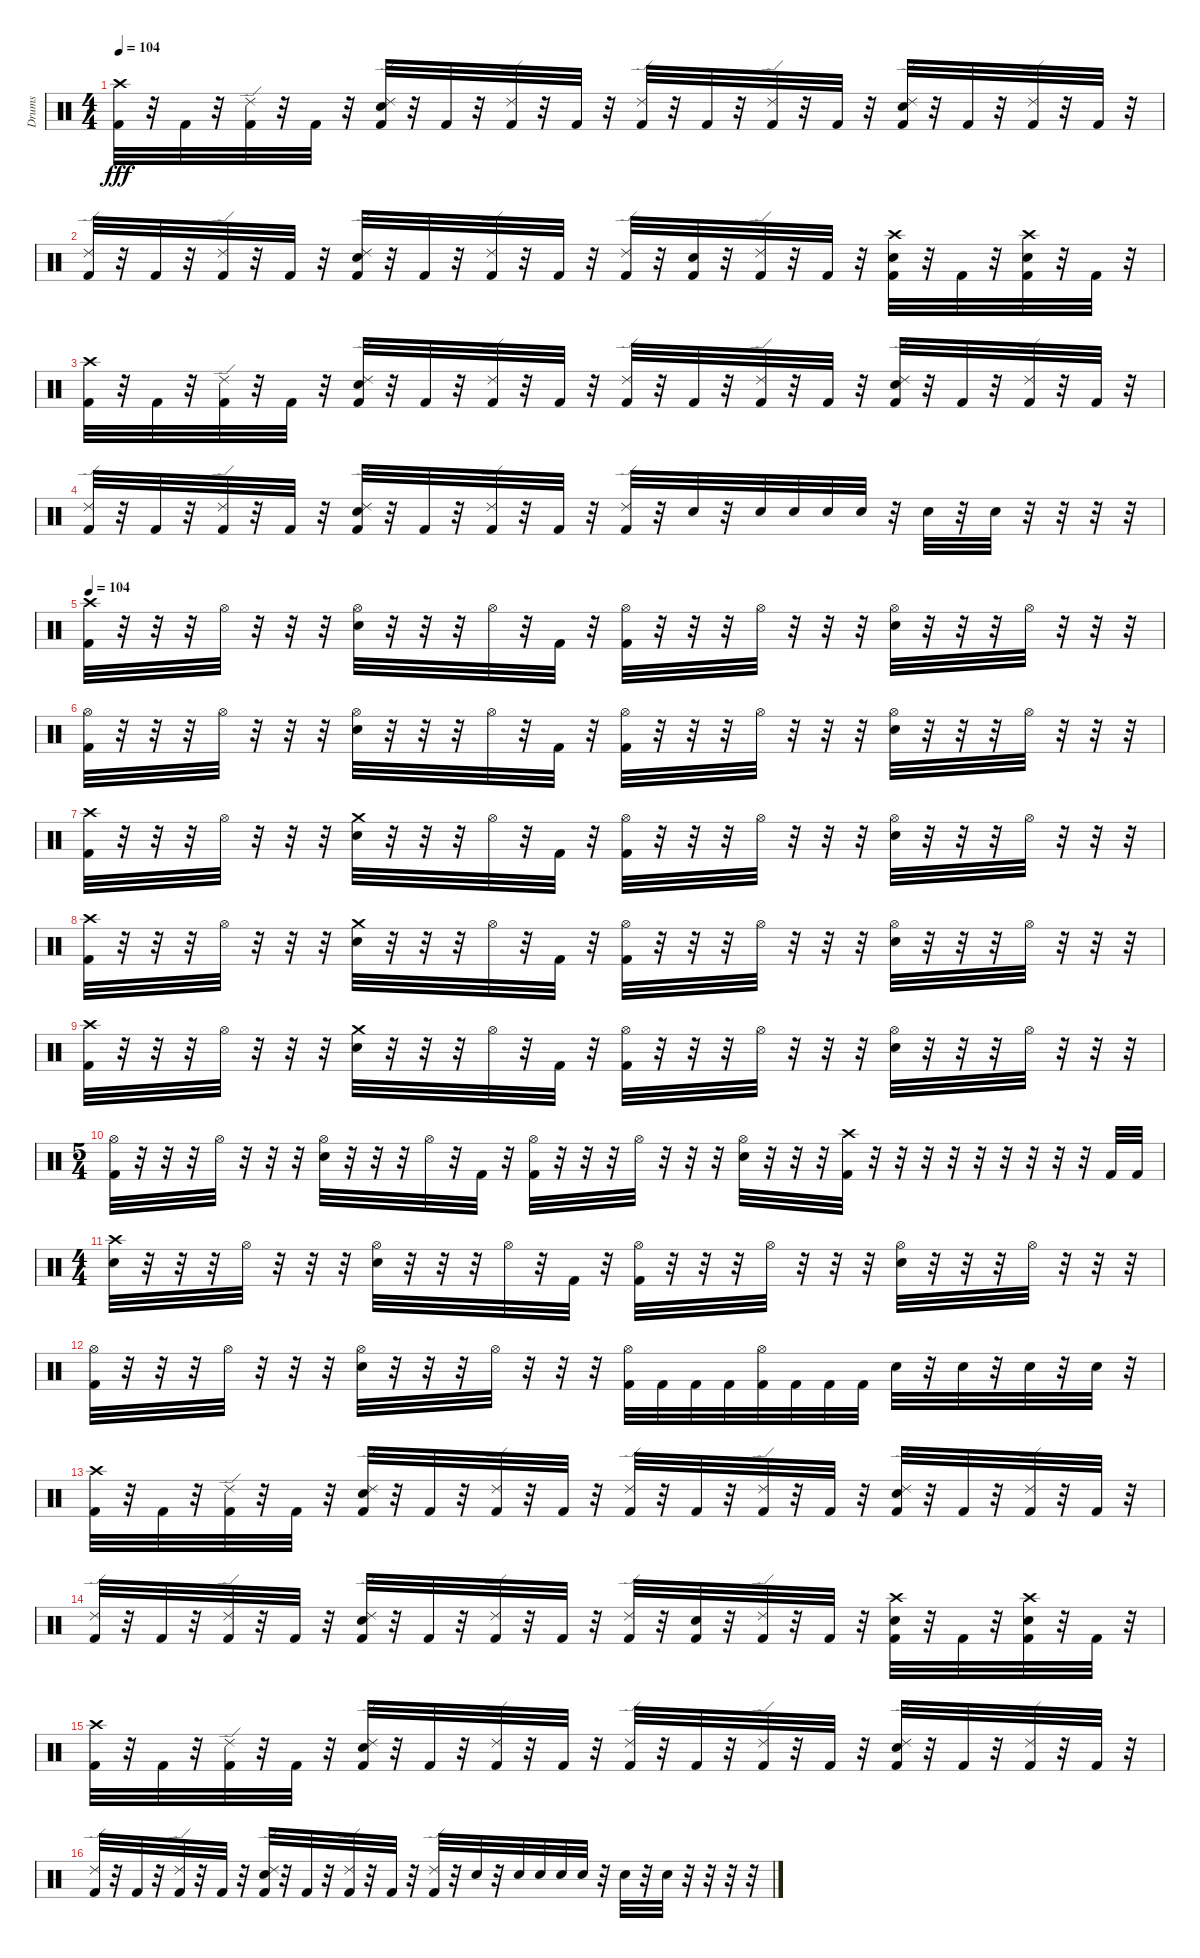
\track ("Drums" "Drums") {instrument percussion}
\staff {score}
\articulation defaults
\ts (4 4)
\tempo 104
\clef neutral
\ks c
("Crash high (hit)" "Kick (hit) 2").32{dy fff} r.32 "Kick (hit) 2".32 r.32 ("Ride (edge) 2" "Kick (hit) 2").32 r.32 "Kick (hit) 2".32 r.32 ("Ride (edge) 2" "Snare (hit) 2" "Kick (hit) 2").32 r.32 "Kick (hit) 2".32 r.32 ("Ride (edge) 2" "Kick (hit) 2").32 r.32 "Kick (hit) 2".32 r.32 ("Ride (edge) 2" "Kick (hit) 2").32 r.32 "Kick (hit) 2".32 r.32 ("Ride (edge) 2" "Kick (hit) 2").32 r.32 "Kick (hit) 2".32 r.32 ("Ride (edge) 2" "Snare (hit) 2" "Kick (hit) 2").32 r.32 "Kick (hit) 2".32 r.32 ("Ride (edge) 2" "Kick (hit) 2").32 r.32 "Kick (hit) 2".32 r.32 |
("Ride (edge) 2" "Kick (hit) 2").32 r.32 "Kick (hit) 2".32 r.32 ("Ride (edge) 2" "Kick (hit) 2").32 r.32 "Kick (hit) 2".32 r.32 ("Ride (edge) 2" "Snare (hit) 2" "Kick (hit) 2").32 r.32 "Kick (hit) 2".32 r.32 ("Ride (edge) 2" "Kick (hit) 2").32 r.32 "Kick (hit) 2".32 r.32 ("Ride (edge) 2" "Kick (hit) 2").32 r.32 ("Snare (hit) 2" "Kick (hit) 2").32 r.32 ("Ride (edge) 2" "Kick (hit) 2").32 r.32 "Kick (hit) 2".32 r.32 ("Crash high (hit)" "Snare (hit) 2" "Kick (hit) 2").32 r.32 "Kick (hit) 2".32 r.32 ("Crash high (hit)" "Snare (hit) 2" "Kick (hit) 2").32 r.32 "Kick (hit) 2".32 r.32 |
("Crash high (hit)" "Kick (hit) 2").32 r.32 "Kick (hit) 2".32 r.32 ("Ride (edge) 2" "Kick (hit) 2").32 r.32 "Kick (hit) 2".32 r.32 ("Ride (edge) 2" "Snare (hit) 2" "Kick (hit) 2").32 r.32 "Kick (hit) 2".32 r.32 ("Ride (edge) 2" "Kick (hit) 2").32 r.32 "Kick (hit) 2".32 r.32 ("Ride (edge) 2" "Kick (hit) 2").32 r.32 "Kick (hit) 2".32 r.32 ("Ride (edge) 2" "Kick (hit) 2").32 r.32 "Kick (hit) 2".32 r.32 ("Ride (edge) 2" "Snare (hit) 2" "Kick (hit) 2").32 r.32 "Kick (hit) 2".32 r.32 ("Ride (edge) 2" "Kick (hit) 2").32 r.32 "Kick (hit) 2".32 r.32 |
("Ride (edge) 2" "Kick (hit) 2").32 r.32 "Kick (hit) 2".32 r.32 ("Ride (edge) 2" "Kick (hit) 2").32 r.32 "Kick (hit) 2".32 r.32 ("Ride (edge) 2" "Snare (hit) 2" "Kick (hit) 2").32 r.32 "Kick (hit) 2".32 r.32 ("Ride (edge) 2" "Kick (hit) 2").32 r.32 "Kick (hit) 2".32 r.32 ("Ride (edge) 2" "Kick (hit) 2").32 r.32 "Snare (hit) 2".32 r.32 "Snare (hit) 2".32 "Snare (hit) 2".32 "Snare (hit) 2".32 "Snare (hit) 2".32 r.32 "Snare (hit) 2".32 r.32 "Snare (hit) 2".32 r.32 r.32 r.32 r.32 |
\tempo 104
("Crash high (hit)" "Kick (hit) 2").32 r.32 r.32 r.32 "Hi-Hat (open)".32 r.32 r.32 r.32 ("Hi-Hat (open)" "Snare (hit) 2").32 r.32 r.32 r.32 "Hi-Hat (open)".32 r.32 "Kick (hit) 2".32 r.32 ("Hi-Hat (open)" "Kick (hit) 2").32 r.32 r.32 r.32 "Hi-Hat (open)".32 r.32 r.32 r.32 ("Hi-Hat (open)" "Snare (hit) 2").32 r.32 r.32 r.32 "Hi-Hat (open)".32 r.32 r.32 r.32 |
("Hi-Hat (open)" "Kick (hit) 2").32 r.32 r.32 r.32 "Hi-Hat (open)".32 r.32 r.32 r.32 ("Hi-Hat (open)" "Snare (hit) 2").32 r.32 r.32 r.32 "Hi-Hat (open)".32 r.32 "Kick (hit) 2".32 r.32 ("Hi-Hat (open)" "Kick (hit) 2").32 r.32 r.32 r.32 "Hi-Hat (open)".32 r.32 r.32 r.32 ("Hi-Hat (open)" "Snare (hit) 2").32 r.32 r.32 r.32 "Hi-Hat (open)".32 r.32 r.32 r.32 |
("Crash high (hit)" "Kick (hit) 2").32 r.32 r.32 r.32 "Hi-Hat (open)".32 r.32 r.32 r.32 ("Crash medium (hit)" "Snare (hit) 2").32 r.32 r.32 r.32 "Hi-Hat (open)".32 r.32 "Kick (hit) 2".32 r.32 ("Hi-Hat (open)" "Kick (hit) 2").32 r.32 r.32 r.32 "Hi-Hat (open)".32 r.32 r.32 r.32 ("Hi-Hat (open)" "Snare (hit) 2").32 r.32 r.32 r.32 "Hi-Hat (open)".32 r.32 r.32 r.32 |
("Crash high (hit)" "Kick (hit) 2").32 r.32 r.32 r.32 "Hi-Hat (open)".32 r.32 r.32 r.32 ("Crash medium (hit)" "Snare (hit) 2").32 r.32 r.32 r.32 "Hi-Hat (open)".32 r.32 "Kick (hit) 2".32 r.32 ("Hi-Hat (open)" "Kick (hit) 2").32 r.32 r.32 r.32 "Hi-Hat (open)".32 r.32 r.32 r.32 ("Hi-Hat (open)" "Snare (hit) 2").32 r.32 r.32 r.32 "Hi-Hat (open)".32 r.32 r.32 r.32 |
("Crash high (hit)" "Kick (hit) 2").32 r.32 r.32 r.32 "Hi-Hat (open)".32 r.32 r.32 r.32 ("Crash medium (hit)" "Snare (hit) 2").32 r.32 r.32 r.32 "Hi-Hat (open)".32 r.32 "Kick (hit) 2".32 r.32 ("Hi-Hat (open)" "Kick (hit) 2").32 r.32 r.32 r.32 "Hi-Hat (open)".32 r.32 r.32 r.32 ("Hi-Hat (open)" "Snare (hit) 2").32 r.32 r.32 r.32 "Hi-Hat (open)".32 r.32 r.32 r.32 |
\ts (5 4)
("Hi-Hat (open)" "Kick (hit) 2").32 r.32 r.32 r.32 "Hi-Hat (open)".32 r.32 r.32 r.32 ("Hi-Hat (open)" "Snare (hit) 2").32 r.32 r.32 r.32 "Hi-Hat (open)".32 r.32 "Kick (hit) 2".32 r.32 ("Hi-Hat (open)" "Kick (hit) 2").32 r.32 r.32 r.32 "Hi-Hat (open)".32 r.32 r.32 r.32 ("Hi-Hat (open)" "Snare (hit) 2").32 r.32 r.32 r.32 ("Crash high (hit)" "Kick (hit) 2").32 r.32 r.32 r.32 r.32 r.32 r.32 r.32 r.32 r.32 "Kick (hit) 2".32 "Kick (hit) 2".32 |
\ts (4 4)
("Crash high (hit)" "Snare (hit) 2").32 r.32 r.32 r.32 "Hi-Hat (open)".32 r.32 r.32 r.32 ("Hi-Hat (open)" "Snare (hit) 2").32 r.32 r.32 r.32 "Hi-Hat (open)".32 r.32 "Kick (hit) 2".32 r.32 ("Hi-Hat (open)" "Kick (hit) 2").32 r.32 r.32 r.32 "Hi-Hat (open)".32 r.32 r.32 r.32 ("Hi-Hat (open)" "Snare (hit) 2").32 r.32 r.32 r.32 "Hi-Hat (open)".32 r.32 r.32 r.32 |
("Hi-Hat (open)" "Kick (hit) 2").32 r.32 r.32 r.32 "Hi-Hat (open)".32 r.32 r.32 r.32 ("Hi-Hat (open)" "Snare (hit) 2").32 r.32 r.32 r.32 "Hi-Hat (open)".32 r.32 r.32 r.32 ("Hi-Hat (open)" "Kick (hit) 2").32 "Kick (hit) 2".32 "Kick (hit) 2".32 "Kick (hit) 2".32 ("Hi-Hat (open)" "Kick (hit) 2").32 "Kick (hit) 2".32 "Kick (hit) 2".32 "Kick (hit) 2".32 "Snare (hit) 2".32 r.32 "Snare (hit) 2".32 r.32 "Snare (hit) 2".32 r.32 "Snare (hit) 2".32 r.32 |
("Crash high (hit)" "Kick (hit) 2").32 r.32 "Kick (hit) 2".32 r.32 ("Ride (edge) 2" "Kick (hit) 2").32 r.32 "Kick (hit) 2".32 r.32 ("Ride (edge) 2" "Snare (hit) 2" "Kick (hit) 2").32 r.32 "Kick (hit) 2".32 r.32 ("Ride (edge) 2" "Kick (hit) 2").32 r.32 "Kick (hit) 2".32 r.32 ("Ride (edge) 2" "Kick (hit) 2").32 r.32 "Kick (hit) 2".32 r.32 ("Ride (edge) 2" "Kick (hit) 2").32 r.32 "Kick (hit) 2".32 r.32 ("Ride (edge) 2" "Snare (hit) 2" "Kick (hit) 2").32 r.32 "Kick (hit) 2".32 r.32 ("Ride (edge) 2" "Kick (hit) 2").32 r.32 "Kick (hit) 2".32 r.32 |
("Ride (edge) 2" "Kick (hit) 2").32 r.32 "Kick (hit) 2".32 r.32 ("Ride (edge) 2" "Kick (hit) 2").32 r.32 "Kick (hit) 2".32 r.32 ("Ride (edge) 2" "Snare (hit) 2" "Kick (hit) 2").32 r.32 "Kick (hit) 2".32 r.32 ("Ride (edge) 2" "Kick (hit) 2").32 r.32 "Kick (hit) 2".32 r.32 ("Ride (edge) 2" "Kick (hit) 2").32 r.32 ("Snare (hit) 2" "Kick (hit) 2").32 r.32 ("Ride (edge) 2" "Kick (hit) 2").32 r.32 "Kick (hit) 2".32 r.32 ("Crash high (hit)" "Snare (hit) 2" "Kick (hit) 2").32 r.32 "Kick (hit) 2".32 r.32 ("Crash high (hit)" "Snare (hit) 2" "Kick (hit) 2").32 r.32 "Kick (hit) 2".32 r.32 |
("Crash high (hit)" "Kick (hit) 2").32 r.32 "Kick (hit) 2".32 r.32 ("Ride (edge) 2" "Kick (hit) 2").32 r.32 "Kick (hit) 2".32 r.32 ("Ride (edge) 2" "Snare (hit) 2" "Kick (hit) 2").32 r.32 "Kick (hit) 2".32 r.32 ("Ride (edge) 2" "Kick (hit) 2").32 r.32 "Kick (hit) 2".32 r.32 ("Ride (edge) 2" "Kick (hit) 2").32 r.32 "Kick (hit) 2".32 r.32 ("Ride (edge) 2" "Kick (hit) 2").32 r.32 "Kick (hit) 2".32 r.32 ("Ride (edge) 2" "Snare (hit) 2" "Kick (hit) 2").32 r.32 "Kick (hit) 2".32 r.32 ("Ride (edge) 2" "Kick (hit) 2").32 r.32 "Kick (hit) 2".32 r.32 |
("Ride (edge) 2" "Kick (hit) 2").32 r.32 "Kick (hit) 2".32 r.32 ("Ride (edge) 2" "Kick (hit) 2").32 r.32 "Kick (hit) 2".32 r.32 ("Ride (edge) 2" "Snare (hit) 2" "Kick (hit) 2").32 r.32 "Kick (hit) 2".32 r.32 ("Ride (edge) 2" "Kick (hit) 2").32 r.32 "Kick (hit) 2".32 r.32 ("Ride (edge) 2" "Kick (hit) 2").32 r.32 "Snare (hit) 2".32 r.32 "Snare (hit) 2".32 "Snare (hit) 2".32 "Snare (hit) 2".32 "Snare (hit) 2".32 r.32 "Snare (hit) 2".32 r.32 "Snare (hit) 2".32 r.32 r.32 r.32 r.32
